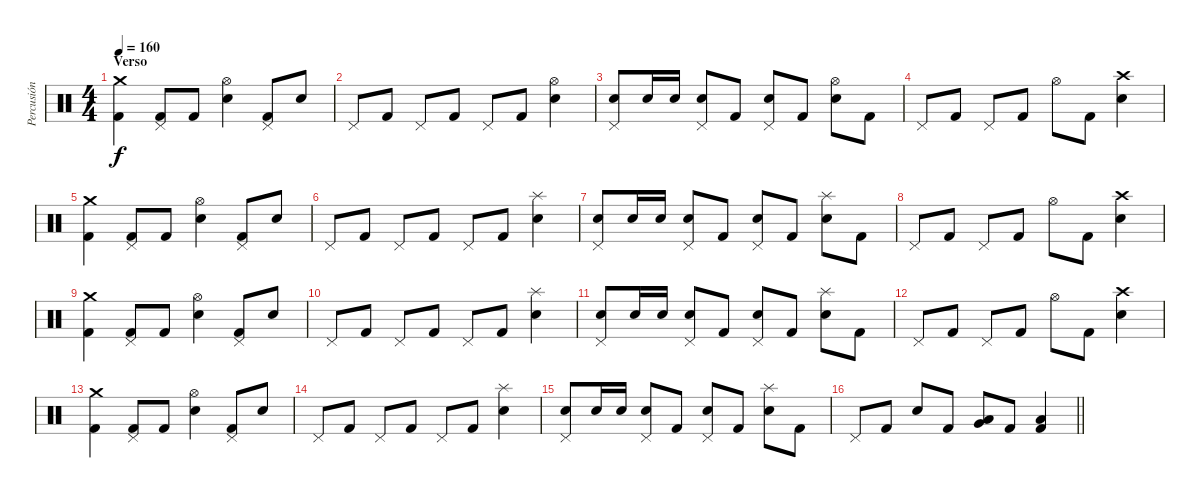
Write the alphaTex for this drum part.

\track ("Percusión" "Percusión") {instrument percussion}
\staff {score}
\articulation defaults
\ts (4 4)
\section ("" "Verso")
\tempo 160
\clef neutral
\ks c
("Crash medium (hit)" "Kick (hit) 2").4{dy f} ("Pedal Hi-Hat (hit)" "Kick (hit) 2").8 "Kick (hit) 2".8 ("Hi-Hat (open)" "Snare (hit) 2").4 ("Pedal Hi-Hat (hit)" "Kick (hit) 2").8 "Snare (hit) 2".8 |
"Pedal Hi-Hat (hit)".8 "Kick (hit) 2".8 "Pedal Hi-Hat (hit)".8 "Kick (hit) 2".8 "Pedal Hi-Hat (hit)".8 "Kick (hit) 2".8 ("Hi-Hat (open)" "Snare (hit) 2").4 |
("Pedal Hi-Hat (hit)" "Snare (hit) 2").8 "Snare (hit) 2".16 "Snare (hit) 2".16 ("Pedal Hi-Hat (hit)" "Snare (hit) 2").8 "Kick (hit) 2".8 ("Pedal Hi-Hat (hit)" "Snare (hit) 2").8 "Kick (hit) 2".8 ("Hi-Hat (open)" "Snare (hit) 2").8 "Kick (hit) 2".8 |
"Pedal Hi-Hat (hit)".8 "Kick (hit) 2".8 "Pedal Hi-Hat (hit)".8 "Kick (hit) 2".8 "Hi-Hat (open)".8 "Kick (hit) 2".8 ("Crash high (hit)" "Snare (hit) 2").4 |
("Crash medium (hit)" "Kick (hit) 2").4 ("Pedal Hi-Hat (hit)" "Kick (hit) 2").8 "Kick (hit) 2".8 ("Hi-Hat (open)" "Snare (hit) 2").4 ("Pedal Hi-Hat (hit)" "Kick (hit) 2").8 "Snare (hit) 2".8 |
"Pedal Hi-Hat (hit)".8 "Kick (hit) 2".8 "Pedal Hi-Hat (hit)".8 "Kick (hit) 2".8 "Pedal Hi-Hat (hit)".8 "Kick (hit) 2".8 ("Splash (hit)" "Snare (hit) 2").4 |
("Pedal Hi-Hat (hit)" "Snare (hit) 2").8 "Snare (hit) 2".16 "Snare (hit) 2".16 ("Pedal Hi-Hat (hit)" "Snare (hit) 2").8 "Kick (hit) 2".8 ("Pedal Hi-Hat (hit)" "Snare (hit) 2").8 "Kick (hit) 2".8 ("Splash (hit)" "Snare (hit) 2").8 "Kick (hit) 2".8 |
"Pedal Hi-Hat (hit)".8 "Kick (hit) 2".8 "Pedal Hi-Hat (hit)".8 "Kick (hit) 2".8 "Hi-Hat (open)".8 "Kick (hit) 2".8 ("Crash high (hit)" "Snare (hit) 2").4 |
("Crash medium (hit)" "Kick (hit) 2").4 ("Pedal Hi-Hat (hit)" "Kick (hit) 2").8 "Kick (hit) 2".8 ("Hi-Hat (open)" "Snare (hit) 2").4 ("Pedal Hi-Hat (hit)" "Kick (hit) 2").8 "Snare (hit) 2".8 |
"Pedal Hi-Hat (hit)".8 "Kick (hit) 2".8 "Pedal Hi-Hat (hit)".8 "Kick (hit) 2".8 "Pedal Hi-Hat (hit)".8 "Kick (hit) 2".8 ("Splash (hit)" "Snare (hit) 2").4 |
("Pedal Hi-Hat (hit)" "Snare (hit) 2").8 "Snare (hit) 2".16 "Snare (hit) 2".16 ("Pedal Hi-Hat (hit)" "Snare (hit) 2").8 "Kick (hit) 2".8 ("Pedal Hi-Hat (hit)" "Snare (hit) 2").8 "Kick (hit) 2".8 ("Splash (hit)" "Snare (hit) 2").8 "Kick (hit) 2".8 |
"Pedal Hi-Hat (hit)".8 "Kick (hit) 2".8 "Pedal Hi-Hat (hit)".8 "Kick (hit) 2".8 "Hi-Hat (open)".8 "Kick (hit) 2".8 ("Crash high (hit)" "Snare (hit) 2").4 |
("Crash medium (hit)" "Kick (hit) 2").4 ("Pedal Hi-Hat (hit)" "Kick (hit) 2").8 "Kick (hit) 2".8 ("Hi-Hat (open)" "Snare (hit) 2").4 ("Pedal Hi-Hat (hit)" "Kick (hit) 2").8 "Snare (hit) 2".8 |
"Pedal Hi-Hat (hit)".8 "Kick (hit) 2".8 "Pedal Hi-Hat (hit)".8 "Kick (hit) 2".8 "Pedal Hi-Hat (hit)".8 "Kick (hit) 2".8 ("Splash (hit)" "Snare (hit) 2").4 |
("Pedal Hi-Hat (hit)" "Snare (hit) 2").8 "Snare (hit) 2".16 "Snare (hit) 2".16 ("Pedal Hi-Hat (hit)" "Snare (hit) 2").8 "Kick (hit) 2".8 ("Pedal Hi-Hat (hit)" "Snare (hit) 2").8 "Kick (hit) 2".8 ("Splash (hit)" "Snare (hit) 2").8 "Kick (hit) 2".8 |
\barLineRight lightlight "Pedal Hi-Hat (hit)".8 "Kick (hit) 2".8 "Snare (hit) 2".8 "Kick (hit) 2".8
("Very Low Tom (hit)" "Low Floor Tom (hit)").8 "Kick (hit) 2".8 ("Low Floor Tom (hit)" "Kick (hit) 2").4
